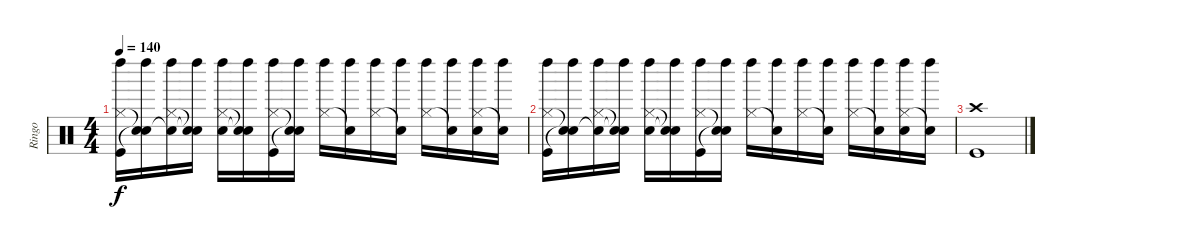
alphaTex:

\track ("Ringo" "Ringo") {instrument percussion}
\staff {score}
\articulation defaults
\ts (4 4)
\tempo 140
\clef neutral
\ks c
("Left Maraca (hit)" "Hi-Hat (closed)" "Kick (hit)").16{dy f} ("Left Maraca (hit)" "Snare (hit)"{t} "Snare (hit)"{t}).16 ("Left Maraca (hit)" "Hi-Hat (closed)" "Snare (hit)"{t}).16 ("Left Maraca (hit)" "Snare (hit)"{t} "Snare (hit)"{t}).16 ("Left Maraca (hit)" "Hi-Hat (closed)" "Snare (hit) 2").16 ("Left Maraca (hit)" "Snare (hit)"{t} "Snare (hit)"{t}).16 ("Left Maraca (hit)" "Hi-Hat (closed)" "Kick (hit)").16 ("Left Maraca (hit)" "Snare (hit)"{t} "Snare (hit)"{t}).16 ("Left Maraca (hit)" "Hi-Hat (closed)").16 ("Left Maraca (hit)" "Snare (hit)"{t}).16 ("Left Maraca (hit)" "Hi-Hat (closed)").16 ("Left Maraca (hit)" "Snare (hit)"{t}).16 ("Left Maraca (hit)" "Hi-Hat (closed)").16 ("Left Maraca (hit)" "Snare (hit)"{t}).16 ("Left Maraca (hit)" "Hi-Hat (closed)" "Snare (hit) 2").16 ("Left Maraca (hit)" "Snare (hit)"{t}).16 |
("Left Maraca (hit)" "Hi-Hat (closed)" "Kick (hit)").16 ("Left Maraca (hit)" "Snare (hit)"{t} "Snare (hit)"{t}).16 ("Left Maraca (hit)" "Hi-Hat (closed)" "Snare (hit)"{t}).16 ("Left Maraca (hit)" "Snare (hit)"{t} "Snare (hit)"{t}).16 ("Left Maraca (hit)" "Hi-Hat (closed)" "Snare (hit) 2").16 ("Left Maraca (hit)" "Snare (hit)"{t} "Snare (hit)"{t}).16 ("Left Maraca (hit)" "Hi-Hat (closed)" "Kick (hit)").16 ("Left Maraca (hit)" "Snare (hit)"{t} "Snare (hit)"{t}).16 ("Left Maraca (hit)" "Hi-Hat (closed)").16 ("Left Maraca (hit)" "Snare (hit)"{t}).16 ("Left Maraca (hit)" "Hi-Hat (closed)").16 ("Left Maraca (hit)" "Snare (hit)"{t}).16 ("Left Maraca (hit)" "Hi-Hat (closed)").16 ("Left Maraca (hit)" "Snare (hit)"{t}).16 ("Left Maraca (hit)" "Hi-Hat (closed)" "Snare (hit) 2").16 ("Left Maraca (hit)" "Snare (hit)"{t}).16 |
("Crash high (hit)" "Kick (hit)").1
